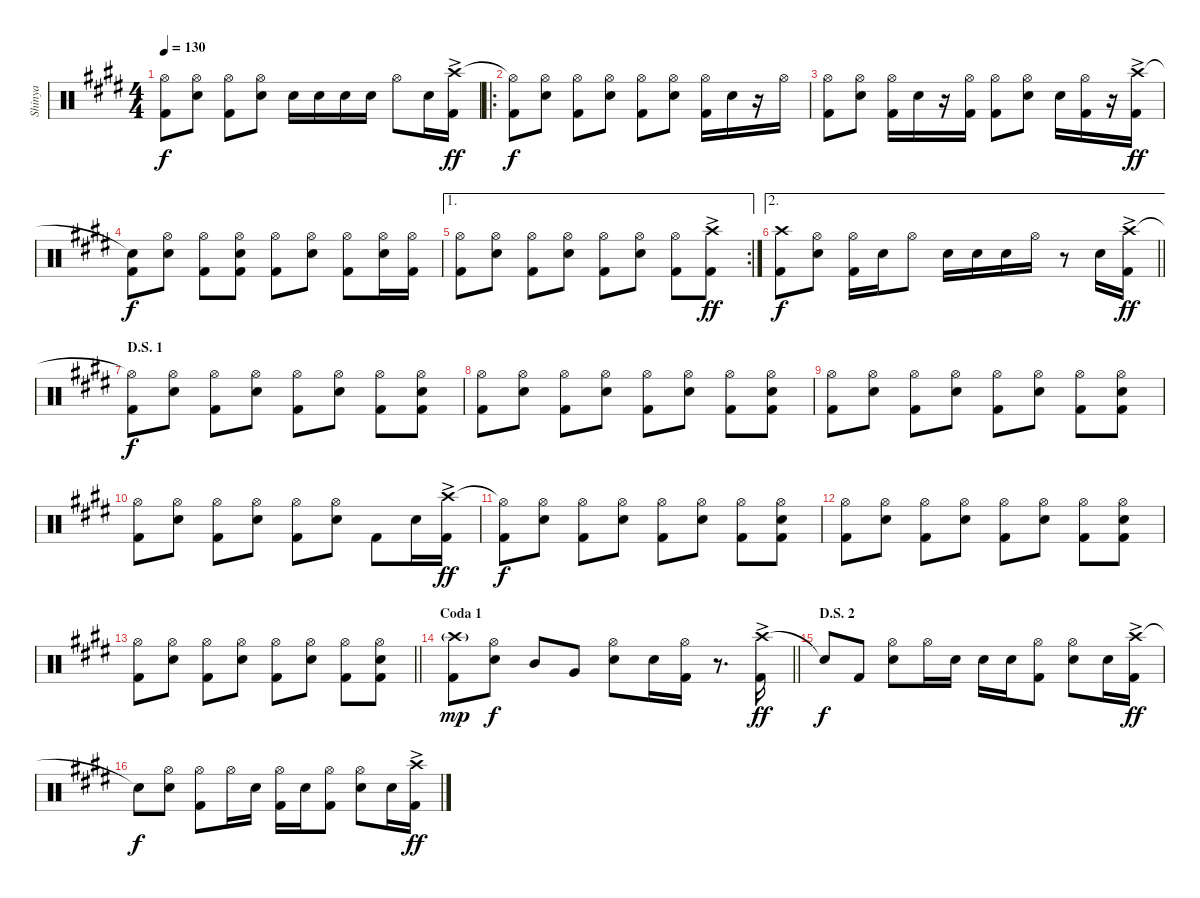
\track ("Shinya" "Shinya") {instrument percussion}
\staff {score}
\articulation defaults
\ts (4 4)
\tempo 130
\clef neutral
\ks c#minor
("Hi-Hat (open)" "Kick (hit) 2").8{dy f} ("Hi-Hat (open)" "Snare (hit) 2").8 ("Hi-Hat (open)" "Kick (hit) 2").8 ("Hi-Hat (open)" "Snare (hit) 2").8 "Snare (hit) 2".16 "Snare (hit) 2".16 "Snare (hit) 2".16 "Snare (hit) 2".16 "Hi-Hat (open)".8 "Snare (hit) 2".16 ("Crash high (hit)"{ac} "Kick (hit) 2").16{dy ff} |
\ro
("Hi-Hat (open)"{t} "Kick (hit) 2").8{dy f} ("Hi-Hat (open)" "Snare (hit) 2").8 ("Hi-Hat (open)" "Kick (hit) 2").8 ("Hi-Hat (open)" "Snare (hit) 2").8 ("Hi-Hat (open)" "Kick (hit) 2").8 ("Hi-Hat (open)" "Snare (hit) 2").8 ("Hi-Hat (open)" "Kick (hit) 2").16 "Snare (hit) 2".16 r.16 "Hi-Hat (open)".16 |
("Hi-Hat (open)" "Kick (hit) 2").8 ("Hi-Hat (open)" "Snare (hit) 2").8 ("Hi-Hat (open)" "Kick (hit) 2").16 "Snare (hit) 2".16 r.16 ("Hi-Hat (open)" "Kick (hit) 2").16 ("Hi-Hat (open)" "Kick (hit) 2").8 ("Hi-Hat (open)" "Snare (hit) 2").8 "Snare (hit) 2".16 ("Hi-Hat (open)" "Kick (hit) 2").16 r.16 ("Crash high (hit)"{ac} "Kick (hit) 2").16{dy ff} |
("Snare (hit)"{t} "Kick (hit) 2").8{dy f} ("Hi-Hat (open)" "Snare (hit) 2").8 ("Hi-Hat (open)" "Kick (hit) 2").8 ("Hi-Hat (open)" "Snare (hit) 2" "Kick (hit) 2").8 ("Hi-Hat (open)" "Kick (hit) 2").8 ("Hi-Hat (open)" "Snare (hit) 2").8 ("Hi-Hat (open)" "Kick (hit) 2").8 ("Hi-Hat (open)" "Snare (hit) 2").16 ("Hi-Hat (open)" "Kick (hit) 2").16 |
\ae 1
\rc 2
("Hi-Hat (open)" "Kick (hit) 2").8 ("Hi-Hat (open)" "Snare (hit) 2").8 ("Hi-Hat (open)" "Kick (hit) 2").8 ("Hi-Hat (open)" "Snare (hit) 2").8 ("Hi-Hat (open)" "Kick (hit) 2").8 ("Hi-Hat (open)" "Snare (hit) 2").8 ("Hi-Hat (open)" "Kick (hit) 2").8 ("Crash high (hit)"{ac} "Kick (hit) 2").8{dy ff} |
\ae 2
\barLineRight lightlight
("Crash high (hit)" "Kick (hit) 2").8{dy f} ("Hi-Hat (open)" "Snare (hit) 2").8 ("Hi-Hat (open)" "Kick (hit) 2").16 "Snare (hit) 2".16 "Hi-Hat (open)".8 "Snare (hit) 2".16 "Snare (hit) 2".16 "Snare (hit) 2".16 "Hi-Hat (open)".16 r.8 "Snare (hit) 2".16 ("Crash high (hit)"{ac} "Kick (hit) 2").16{dy ff} |
\section ("" "D.S. 1")
("Hi-Hat (open)"{t} "Kick (hit) 2").8{dy f} ("Hi-Hat (open)" "Snare (hit) 2").8 ("Hi-Hat (open)" "Kick (hit) 2").8 ("Hi-Hat (open)" "Snare (hit) 2").8 ("Hi-Hat (open)" "Kick (hit) 2").8 ("Hi-Hat (open)" "Snare (hit) 2").8 ("Hi-Hat (open)" "Kick (hit) 2").8 ("Hi-Hat (open)" "Snare (hit) 2" "Kick (hit) 2").8 |
("Hi-Hat (open)" "Kick (hit) 2").8 ("Hi-Hat (open)" "Snare (hit) 2").8 ("Hi-Hat (open)" "Kick (hit) 2").8 ("Hi-Hat (open)" "Snare (hit) 2").8 ("Hi-Hat (open)" "Kick (hit) 2").8 ("Hi-Hat (open)" "Snare (hit) 2").8 ("Hi-Hat (open)" "Kick (hit) 2").8 ("Hi-Hat (open)" "Snare (hit) 2" "Kick (hit) 2").8 |
("Hi-Hat (open)" "Kick (hit) 2").8 ("Hi-Hat (open)" "Snare (hit) 2").8 ("Hi-Hat (open)" "Kick (hit) 2").8 ("Hi-Hat (open)" "Snare (hit) 2").8 ("Hi-Hat (open)" "Kick (hit) 2").8 ("Hi-Hat (open)" "Snare (hit) 2").8 ("Hi-Hat (open)" "Kick (hit) 2").8 ("Hi-Hat (open)" "Snare (hit) 2" "Kick (hit) 2").8 |
("Hi-Hat (open)" "Kick (hit) 2").8 ("Hi-Hat (open)" "Snare (hit) 2").8 ("Hi-Hat (open)" "Kick (hit) 2").8 ("Hi-Hat (open)" "Snare (hit) 2").8 ("Hi-Hat (open)" "Kick (hit) 2").8 ("Hi-Hat (open)" "Snare (hit) 2").8 "Kick (hit) 2".8 "Snare (hit) 2".16 ("Crash high (hit)"{ac} "Kick (hit) 2").16{dy ff} |
("Hi-Hat (open)"{t} "Kick (hit) 2").8{dy f} ("Hi-Hat (open)" "Snare (hit) 2").8 ("Hi-Hat (open)" "Kick (hit) 2").8 ("Hi-Hat (open)" "Snare (hit) 2").8 ("Hi-Hat (open)" "Kick (hit) 2").8 ("Hi-Hat (open)" "Snare (hit) 2").8 ("Hi-Hat (open)" "Kick (hit) 2").8 ("Hi-Hat (open)" "Snare (hit) 2" "Kick (hit) 2").8 |
("Hi-Hat (open)" "Kick (hit) 2").8 ("Hi-Hat (open)" "Snare (hit) 2").8 ("Hi-Hat (open)" "Kick (hit) 2").8 ("Hi-Hat (open)" "Snare (hit) 2").8 ("Hi-Hat (open)" "Kick (hit) 2").8 ("Hi-Hat (open)" "Snare (hit) 2").8 ("Hi-Hat (open)" "Kick (hit) 2").8 ("Hi-Hat (open)" "Snare (hit) 2" "Kick (hit) 2").8 |
\barLineRight lightlight
("Hi-Hat (open)" "Kick (hit) 2").8 ("Hi-Hat (open)" "Snare (hit) 2").8 ("Hi-Hat (open)" "Kick (hit) 2").8 ("Hi-Hat (open)" "Snare (hit) 2").8 ("Hi-Hat (open)" "Kick (hit) 2").8 ("Hi-Hat (open)" "Snare (hit) 2").8 ("Hi-Hat (open)" "Kick (hit) 2").8 ("Hi-Hat (open)" "Snare (hit) 2" "Kick (hit) 2").8 |
\section ("" "Coda 1")
\barLineRight lightlight
("Crash high (hit)"{g} "Kick (hit) 2").8{dy mp} ("Hi-Hat (open)" "Snare (hit) 2").8{dy f} "Mid Tom (hit)".8 "Very Low Tom (hit)".8 ("Hi-Hat (open)" "Snare (hit) 2").8 "Snare (hit) 2".16 ("Hi-Hat (open)" "Kick (hit) 2").16 r.8{d} ("Crash high (hit)"{ac} "Kick (hit) 2").16{dy ff} |
\section ("" "D.S. 2")
"Snare (hit)"{t}.8{dy f} "Kick (hit) 2".8 ("Hi-Hat (open)" "Snare (hit) 2").8 "Hi-Hat (open)".16 "Snare (hit) 2".16 "Snare (hit) 2".16 "Snare (hit) 2".16 ("Hi-Hat (open)" "Kick (hit) 2").8 ("Hi-Hat (open)" "Snare (hit) 2").8 "Snare (hit) 2".16 ("Crash high (hit)"{ac} "Kick (hit) 2").16{dy ff} |
"Snare (hit)"{t}.8{dy f} ("Hi-Hat (open)" "Snare (hit) 2").8 ("Hi-Hat (open)" "Kick (hit) 2").8 "Hi-Hat (open)".16 "Snare (hit) 2".16 ("Hi-Hat (open)" "Kick (hit) 2").16 "Snare (hit) 2".16 ("Hi-Hat (open)" "Kick (hit) 2").8 ("Hi-Hat (open)" "Snare (hit) 2").8 "Snare (hit) 2".16 ("Crash high (hit)"{ac} "Kick (hit) 2").16{dy ff}
